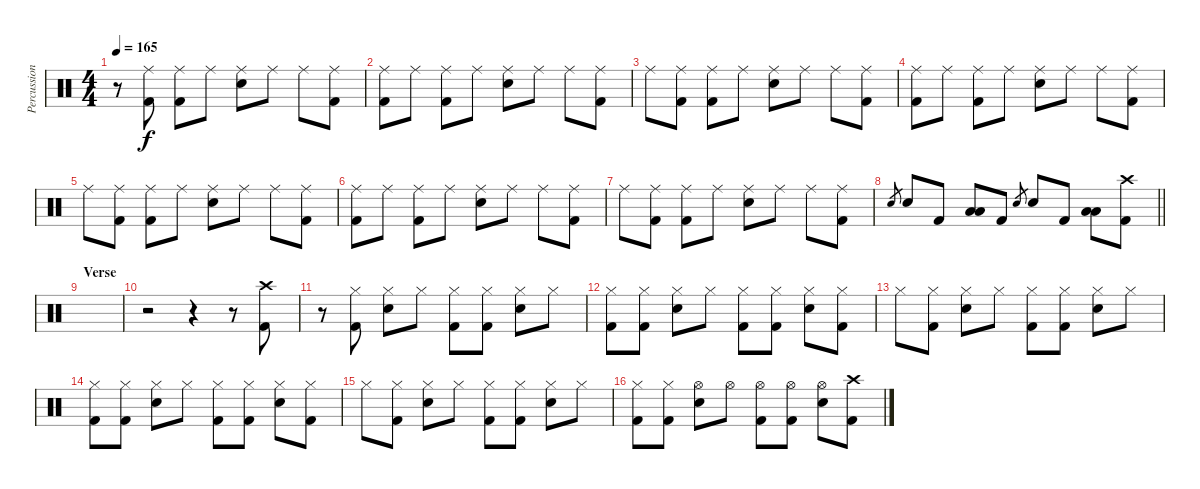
\track ("Percussion" "Percussion") {instrument percussion}
\staff {score}
\articulation defaults
\ts (4 4)
\tempo 165
\clef neutral
\ks c
r.8{dy f} ("Ride (middle)" "Kick (hit) 2").8 ("Ride (middle)" "Kick (hit) 2").8 "Ride (middle)".8 ("Ride (middle)" "Electric Snare (hit)").8 "Ride (middle)".8 "Ride (middle)".8 ("Ride (middle)" "Kick (hit) 2").8 |
("Ride (middle)" "Kick (hit) 2").8 "Ride (middle)".8 ("Ride (middle)" "Kick (hit) 2").8 "Ride (middle)".8 ("Ride (middle)" "Electric Snare (hit)").8 "Ride (middle)".8 "Ride (middle)".8 ("Ride (middle)" "Kick (hit) 2").8 |
"Ride (middle)".8 ("Ride (middle)" "Kick (hit) 2").8 ("Ride (middle)" "Kick (hit) 2").8 "Ride (middle)".8 ("Ride (middle)" "Electric Snare (hit)").8 "Ride (middle)".8 "Ride (middle)".8 ("Ride (middle)" "Kick (hit) 2").8 |
("Ride (middle)" "Kick (hit) 2").8 "Ride (middle)".8 ("Ride (middle)" "Kick (hit) 2").8 "Ride (middle)".8 ("Ride (middle)" "Electric Snare (hit)").8 "Ride (middle)".8 "Ride (middle)".8 ("Ride (middle)" "Kick (hit) 2").8 |
"Ride (middle)".8 ("Ride (middle)" "Kick (hit) 2").8 ("Ride (middle)" "Kick (hit) 2").8 "Ride (middle)".8 ("Ride (middle)" "Electric Snare (hit)").8 "Ride (middle)".8 "Ride (middle)".8 ("Ride (middle)" "Kick (hit) 2").8 |
("Ride (middle)" "Kick (hit) 2").8 "Ride (middle)".8 ("Ride (middle)" "Kick (hit) 2").8 "Ride (middle)".8 ("Ride (middle)" "Electric Snare (hit)").8 "Ride (middle)".8 "Ride (middle)".8 ("Ride (middle)" "Kick (hit) 2").8 |
"Ride (middle)".8 ("Ride (middle)" "Kick (hit) 2").8 ("Ride (middle)" "Kick (hit) 2").8 "Ride (middle)".8 ("Ride (middle)" "Electric Snare (hit)").8 "Ride (middle)".8 "Ride (middle)".8 ("Ride (middle)" "Kick (hit) 2").8 |
\barLineRight lightlight "Electric Snare (hit)".8{gr} "Electric Snare (hit)".8 "Kick (hit) 2".8
("Low Tom (hit)" "Low Floor Tom (hit)").8 "Kick (hit) 2".8 "Electric Snare (hit)".8{gr} "Electric Snare (hit)".8 "Kick (hit) 2".8 ("Low Tom (hit)" "Low Floor Tom (hit)").8 ("Crash high (hit)" "Kick (hit) 2").8 |
\section ("" "Verse")
|
r.2 r.4 r.8 ("Crash high (hit)" "Kick (hit) 2").8 |
r.8 ("Hi-Hat (closed)" "Kick (hit) 2").8 ("Hi-Hat (closed)" "Electric Snare (hit)").8 "Hi-Hat (closed)".8 ("Hi-Hat (closed)" "Kick (hit) 2").8 ("Hi-Hat (closed)" "Kick (hit) 2").8 ("Hi-Hat (closed)" "Electric Snare (hit)").8 "Hi-Hat (closed)".8 |
("Hi-Hat (closed)" "Kick (hit) 2").8 ("Hi-Hat (closed)" "Kick (hit) 2").8 ("Hi-Hat (closed)" "Electric Snare (hit)").8 "Hi-Hat (closed)".8 ("Hi-Hat (closed)" "Kick (hit) 2").8 ("Hi-Hat (closed)" "Kick (hit) 2").8 ("Hi-Hat (closed)" "Electric Snare (hit)").8 ("Hi-Hat (closed)" "Kick (hit) 2").8 |
"Hi-Hat (closed)".8 ("Hi-Hat (closed)" "Kick (hit) 2").8 ("Hi-Hat (closed)" "Electric Snare (hit)").8 "Hi-Hat (closed)".8 ("Hi-Hat (closed)" "Kick (hit) 2").8 ("Hi-Hat (closed)" "Kick (hit) 2").8 ("Hi-Hat (closed)" "Electric Snare (hit)").8 "Hi-Hat (closed)".8 |
("Hi-Hat (closed)" "Kick (hit) 2").8 ("Hi-Hat (closed)" "Kick (hit) 2").8 ("Hi-Hat (closed)" "Electric Snare (hit)").8 "Hi-Hat (closed)".8 ("Hi-Hat (closed)" "Kick (hit) 2").8 ("Hi-Hat (closed)" "Kick (hit) 2").8 ("Hi-Hat (closed)" "Electric Snare (hit)").8 ("Hi-Hat (closed)" "Kick (hit) 2").8 |
"Hi-Hat (closed)".8 ("Hi-Hat (closed)" "Kick (hit) 2").8 ("Hi-Hat (closed)" "Electric Snare (hit)").8 "Hi-Hat (closed)".8 ("Hi-Hat (closed)" "Kick (hit) 2").8 ("Hi-Hat (closed)" "Kick (hit) 2").8 ("Hi-Hat (closed)" "Electric Snare (hit)").8 "Hi-Hat (closed)".8 |
("Hi-Hat (closed)" "Kick (hit) 2").8 ("Hi-Hat (closed)" "Kick (hit) 2").8 ("Hi-Hat (open)" "Electric Snare (hit)").8 "Hi-Hat (open)".8 ("Hi-Hat (open)" "Kick (hit) 2").8 ("Hi-Hat (open)" "Kick (hit) 2").8 ("Hi-Hat (open)" "Electric Snare (hit)").8 ("Crash high (hit)" "Kick (hit) 2").8
